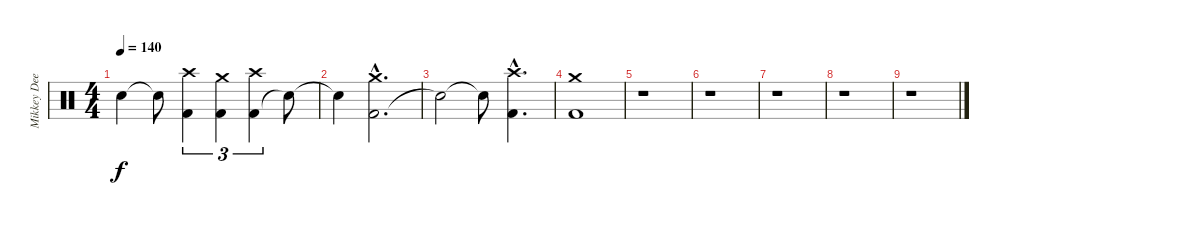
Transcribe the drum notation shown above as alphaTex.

\track ("Mikkey Dee" "Mikkey Dee") {instrument percussion}
\staff {score}
\articulation defaults
\ts (4 4)
\tempo 140
\clef neutral
\ks c "Snare (hit)"{t}.4{dy f} "Snare (hit)"{t}.8
("Kick (hit) 2" "Crash high (hit)").4{tu (3 2)} ("Kick (hit) 2" "Crash medium (hit)").4{tu (3 2)} ("Kick (hit) 2" "Crash high (hit)").4{tu (3 2)} "Snare (hit)"{t}.8 |
"Snare (hit)"{t}.4 ("Kick (hit) 2"{hac} "Crash medium (hit)"{hac}).2{d} |
"Snare (hit)"{t}.2 "Snare (hit)"{t}.8 ("Kick (hit) 2"{hac} "Crash high (hit)"{hac}).4{d} |
("Kick (hit) 2" "Crash medium (hit)").1 |
r.1 |
r.1 |
r.1 |
r.1 |
r.1
